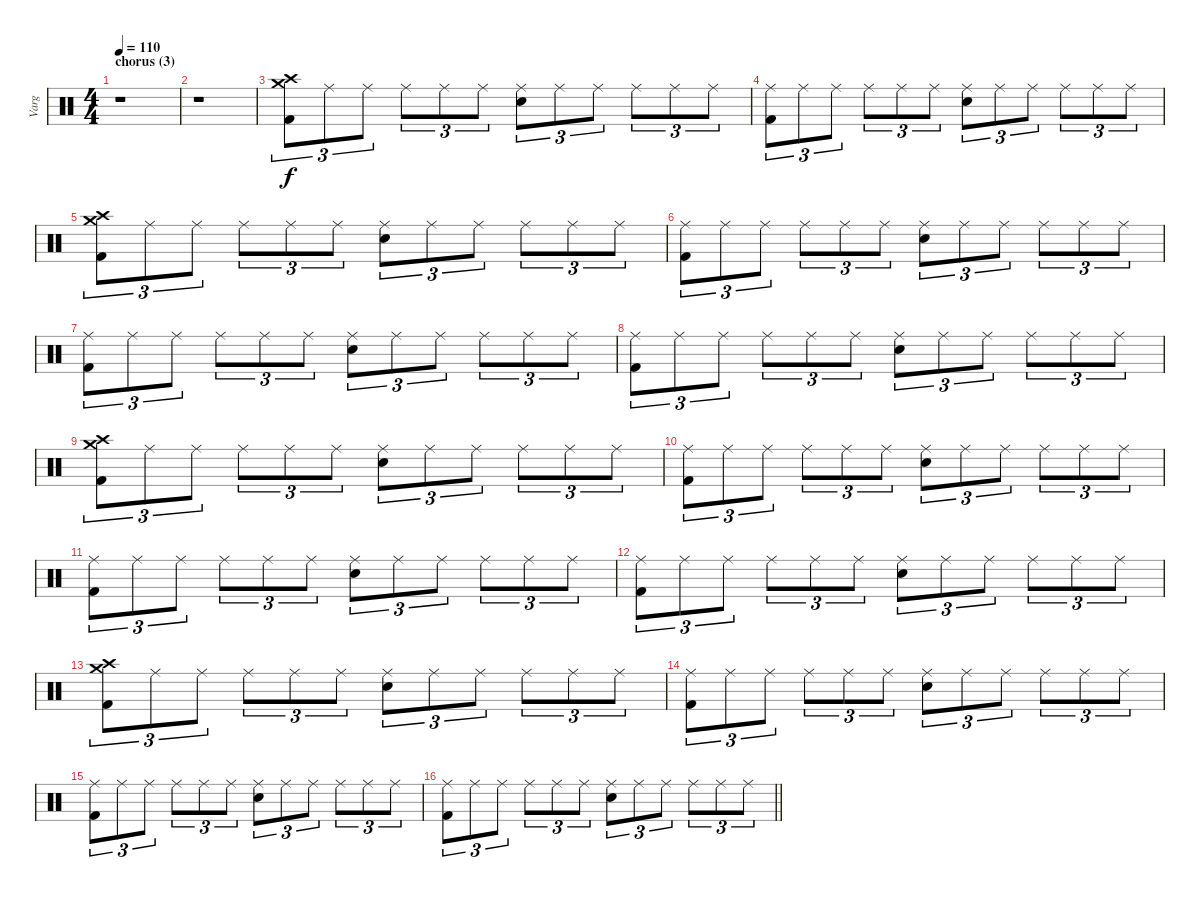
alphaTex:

\track ("Varg" "Varg") {instrument percussion}
\staff {score}
\articulation defaults
\ts (4 4)
\section ("" "chorus (3)")
\tempo 110
\clef neutral
\ks c
r.1{dy f} |
r.1 |
("Crash high (hit)" "Crash medium (hit)" "Kick (hit) 2").8{tu (3 2)} "Ride (middle)".8{tu (3 2)} "Ride (middle)".8{tu (3 2)} "Ride (middle)".8{tu (3 2)} "Ride (middle)".8{tu (3 2)} "Ride (middle)".8{tu (3 2)} ("Ride (middle)" "Snare (hit) 2").8{tu (3 2)} "Ride (middle)".8{tu (3 2)} "Ride (middle)".8{tu (3 2)} "Ride (middle)".8{tu (3 2)} "Ride (middle)".8{tu (3 2)} "Ride (middle)".8{tu (3 2)} |
("Ride (middle)" "Kick (hit) 2").8{tu (3 2)} "Ride (middle)".8{tu (3 2)} "Ride (middle)".8{tu (3 2)} "Ride (middle)".8{tu (3 2)} "Ride (middle)".8{tu (3 2)} "Ride (middle)".8{tu (3 2)} ("Ride (middle)" "Snare (hit) 2").8{tu (3 2)} "Ride (middle)".8{tu (3 2)} "Ride (middle)".8{tu (3 2)} "Ride (middle)".8{tu (3 2)} "Ride (middle)".8{tu (3 2)} "Ride (middle)".8{tu (3 2)} |
("Crash high (hit)" "Crash medium (hit)" "Kick (hit) 2").8{tu (3 2)} "Ride (middle)".8{tu (3 2)} "Ride (middle)".8{tu (3 2)} "Ride (middle)".8{tu (3 2)} "Ride (middle)".8{tu (3 2)} "Ride (middle)".8{tu (3 2)} ("Ride (middle)" "Snare (hit) 2").8{tu (3 2)} "Ride (middle)".8{tu (3 2)} "Ride (middle)".8{tu (3 2)} "Ride (middle)".8{tu (3 2)} "Ride (middle)".8{tu (3 2)} "Ride (middle)".8{tu (3 2)} |
("Ride (middle)" "Kick (hit) 2").8{tu (3 2)} "Ride (middle)".8{tu (3 2)} "Ride (middle)".8{tu (3 2)} "Ride (middle)".8{tu (3 2)} "Ride (middle)".8{tu (3 2)} "Ride (middle)".8{tu (3 2)} ("Ride (middle)" "Snare (hit) 2").8{tu (3 2)} "Ride (middle)".8{tu (3 2)} "Ride (middle)".8{tu (3 2)} "Ride (middle)".8{tu (3 2)} "Ride (middle)".8{tu (3 2)} "Ride (middle)".8{tu (3 2)} |
("Ride (middle)" "Kick (hit) 2").8{tu (3 2)} "Ride (middle)".8{tu (3 2)} "Ride (middle)".8{tu (3 2)} "Ride (middle)".8{tu (3 2)} "Ride (middle)".8{tu (3 2)} "Ride (middle)".8{tu (3 2)} ("Ride (middle)" "Snare (hit) 2").8{tu (3 2)} "Ride (middle)".8{tu (3 2)} "Ride (middle)".8{tu (3 2)} "Ride (middle)".8{tu (3 2)} "Ride (middle)".8{tu (3 2)} "Ride (middle)".8{tu (3 2)} |
("Ride (middle)" "Kick (hit) 2").8{tu (3 2)} "Ride (middle)".8{tu (3 2)} "Ride (middle)".8{tu (3 2)} "Ride (middle)".8{tu (3 2)} "Ride (middle)".8{tu (3 2)} "Ride (middle)".8{tu (3 2)} ("Ride (middle)" "Snare (hit) 2").8{tu (3 2)} "Ride (middle)".8{tu (3 2)} "Ride (middle)".8{tu (3 2)} "Ride (middle)".8{tu (3 2)} "Ride (middle)".8{tu (3 2)} "Ride (middle)".8{tu (3 2)} |
("Crash high (hit)" "Crash medium (hit)" "Kick (hit) 2").8{tu (3 2)} "Ride (middle)".8{tu (3 2)} "Ride (middle)".8{tu (3 2)} "Ride (middle)".8{tu (3 2)} "Ride (middle)".8{tu (3 2)} "Ride (middle)".8{tu (3 2)} ("Ride (middle)" "Snare (hit) 2").8{tu (3 2)} "Ride (middle)".8{tu (3 2)} "Ride (middle)".8{tu (3 2)} "Ride (middle)".8{tu (3 2)} "Ride (middle)".8{tu (3 2)} "Ride (middle)".8{tu (3 2)} |
("Ride (middle)" "Kick (hit) 2").8{tu (3 2)} "Ride (middle)".8{tu (3 2)} "Ride (middle)".8{tu (3 2)} "Ride (middle)".8{tu (3 2)} "Ride (middle)".8{tu (3 2)} "Ride (middle)".8{tu (3 2)} ("Ride (middle)" "Snare (hit) 2").8{tu (3 2)} "Ride (middle)".8{tu (3 2)} "Ride (middle)".8{tu (3 2)} "Ride (middle)".8{tu (3 2)} "Ride (middle)".8{tu (3 2)} "Ride (middle)".8{tu (3 2)} |
("Ride (middle)" "Kick (hit) 2").8{tu (3 2)} "Ride (middle)".8{tu (3 2)} "Ride (middle)".8{tu (3 2)} "Ride (middle)".8{tu (3 2)} "Ride (middle)".8{tu (3 2)} "Ride (middle)".8{tu (3 2)} ("Ride (middle)" "Snare (hit) 2").8{tu (3 2)} "Ride (middle)".8{tu (3 2)} "Ride (middle)".8{tu (3 2)} "Ride (middle)".8{tu (3 2)} "Ride (middle)".8{tu (3 2)} "Ride (middle)".8{tu (3 2)} |
("Ride (middle)" "Kick (hit) 2").8{tu (3 2)} "Ride (middle)".8{tu (3 2)} "Ride (middle)".8{tu (3 2)} "Ride (middle)".8{tu (3 2)} "Ride (middle)".8{tu (3 2)} "Ride (middle)".8{tu (3 2)} ("Ride (middle)" "Snare (hit) 2").8{tu (3 2)} "Ride (middle)".8{tu (3 2)} "Ride (middle)".8{tu (3 2)} "Ride (middle)".8{tu (3 2)} "Ride (middle)".8{tu (3 2)} "Ride (middle)".8{tu (3 2)} |
("Crash high (hit)" "Crash medium (hit)" "Kick (hit) 2").8{tu (3 2)} "Ride (middle)".8{tu (3 2)} "Ride (middle)".8{tu (3 2)} "Ride (middle)".8{tu (3 2)} "Ride (middle)".8{tu (3 2)} "Ride (middle)".8{tu (3 2)} ("Ride (middle)" "Snare (hit) 2").8{tu (3 2)} "Ride (middle)".8{tu (3 2)} "Ride (middle)".8{tu (3 2)} "Ride (middle)".8{tu (3 2)} "Ride (middle)".8{tu (3 2)} "Ride (middle)".8{tu (3 2)} |
("Ride (middle)" "Kick (hit) 2").8{tu (3 2)} "Ride (middle)".8{tu (3 2)} "Ride (middle)".8{tu (3 2)} "Ride (middle)".8{tu (3 2)} "Ride (middle)".8{tu (3 2)} "Ride (middle)".8{tu (3 2)} ("Ride (middle)" "Snare (hit) 2").8{tu (3 2)} "Ride (middle)".8{tu (3 2)} "Ride (middle)".8{tu (3 2)} "Ride (middle)".8{tu (3 2)} "Ride (middle)".8{tu (3 2)} "Ride (middle)".8{tu (3 2)} |
("Ride (middle)" "Kick (hit) 2").8{tu (3 2)} "Ride (middle)".8{tu (3 2)} "Ride (middle)".8{tu (3 2)} "Ride (middle)".8{tu (3 2)} "Ride (middle)".8{tu (3 2)} "Ride (middle)".8{tu (3 2)} ("Ride (middle)" "Snare (hit) 2").8{tu (3 2)} "Ride (middle)".8{tu (3 2)} "Ride (middle)".8{tu (3 2)} "Ride (middle)".8{tu (3 2)} "Ride (middle)".8{tu (3 2)} "Ride (middle)".8{tu (3 2)} |
\barLineRight lightlight
("Ride (middle)" "Kick (hit) 2").8{tu (3 2)} "Ride (middle)".8{tu (3 2)} "Ride (middle)".8{tu (3 2)} "Ride (middle)".8{tu (3 2)} "Ride (middle)".8{tu (3 2)} "Ride (middle)".8{tu (3 2)} ("Ride (middle)" "Snare (hit) 2").8{tu (3 2)} "Ride (middle)".8{tu (3 2)} "Ride (middle)".8{tu (3 2)} "Ride (middle)".8{tu (3 2)} "Ride (middle)".8{tu (3 2)} "Ride (middle)".8{tu (3 2)}
